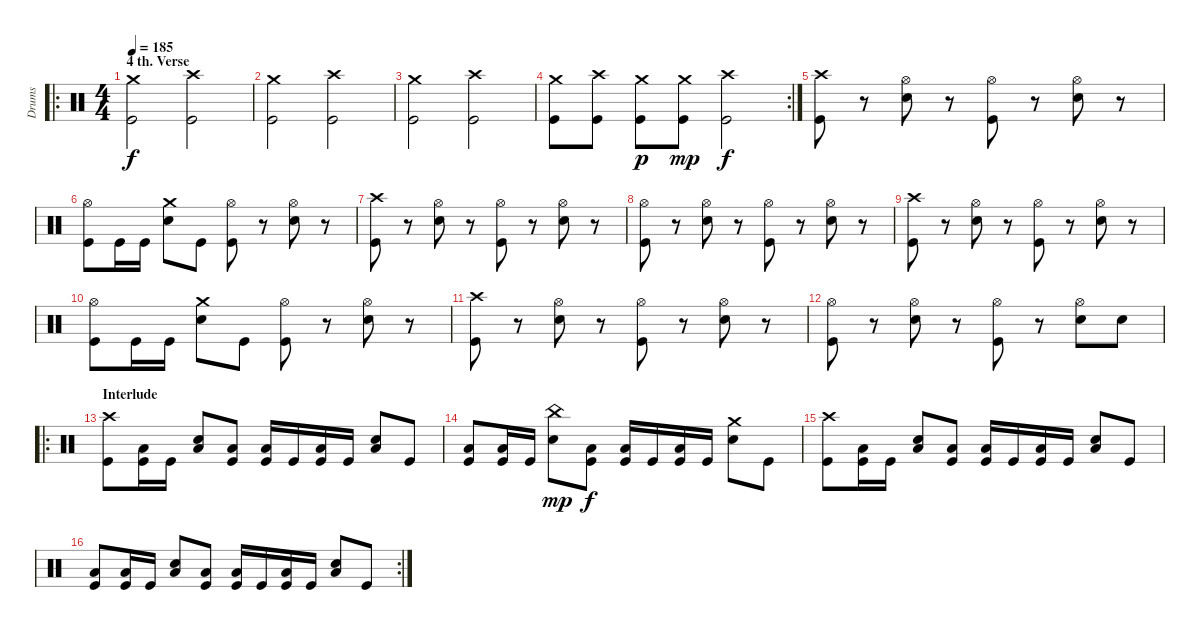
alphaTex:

\track ("Drums" "Drums") {instrument percussion}
\staff {score}
\articulation defaults
\ro
\ts (4 4)
\section ("" "4 th. Verse")
\tempo 185
\clef neutral
\ks c
("Crash medium (hit)" "Kick (hit)").2{dy f} ("Crash high (hit)" "Kick (hit)").2 |
("Crash medium (hit)" "Kick (hit)").2 ("Crash high (hit)" "Kick (hit)").2 |
("Crash medium (hit)" "Kick (hit)").2 ("Crash high (hit)" "Kick (hit)").2 |
\rc 2
("Crash medium (hit)" "Kick (hit)").8 ("Crash high (hit)" "Kick (hit)").8 ("Crash medium (hit)" "Kick (hit)").8{dy p} ("Crash medium (hit)" "Kick (hit)").8{dy mp} ("Crash high (hit)" "Kick (hit)").2{dy f} |
("Crash high (hit)" "Kick (hit)").8 r.8 ("Hi-Hat (open)" "Electric Snare (hit)").8 r.8 ("Hi-Hat (open)" "Kick (hit)").8 r.8 ("Hi-Hat (open)" "Electric Snare (hit)").8 r.8 |
("Hi-Hat (open)" "Kick (hit)").8 "Kick (hit)".16 "Kick (hit)".16 ("Crash medium (hit)" "Electric Snare (hit)").8 "Kick (hit)".8 ("Hi-Hat (open)" "Kick (hit)").8 r.8 ("Hi-Hat (open)" "Electric Snare (hit)").8 r.8 |
("Crash high (hit)" "Kick (hit)").8 r.8 ("Hi-Hat (open)" "Electric Snare (hit)").8 r.8 ("Hi-Hat (open)" "Kick (hit)").8 r.8 ("Hi-Hat (open)" "Electric Snare (hit)").8 r.8 |
("Hi-Hat (open)" "Kick (hit)").8 r.8 ("Hi-Hat (open)" "Electric Snare (hit)").8 r.8 ("Hi-Hat (open)" "Kick (hit)").8 r.8 ("Hi-Hat (open)" "Electric Snare (hit)").8 r.8 |
("Crash high (hit)" "Kick (hit)").8 r.8 ("Hi-Hat (open)" "Electric Snare (hit)").8 r.8 ("Hi-Hat (open)" "Kick (hit)").8 r.8 ("Hi-Hat (open)" "Electric Snare (hit)").8 r.8 |
("Hi-Hat (open)" "Kick (hit)").8 "Kick (hit)".16 "Kick (hit)".16 ("Crash medium (hit)" "Electric Snare (hit)").8 "Kick (hit)".8 ("Hi-Hat (open)" "Kick (hit)").8 r.8 ("Hi-Hat (open)" "Electric Snare (hit)").8 r.8 |
("Crash high (hit)" "Kick (hit)").8 r.8 ("Hi-Hat (open)" "Electric Snare (hit)").8 r.8 ("Hi-Hat (open)" "Kick (hit)").8 r.8 ("Hi-Hat (open)" "Electric Snare (hit)").8 r.8 |
("Hi-Hat (open)" "Kick (hit)").8 r.8 ("Hi-Hat (open)" "Electric Snare (hit)").8 r.8 ("Hi-Hat (open)" "Kick (hit)").8 r.8 ("Hi-Hat (open)" "Electric Snare (hit)").8 "Electric Snare (hit)".8 |
\ro
\section ("" "Interlude")
("Crash high (hit)" "Kick (hit)").8 ("Low Floor Tom (hit)" "Kick (hit)").16 "Kick (hit)".16 ("Low Floor Tom (hit)" "Electric Snare (hit)").8 ("Low Floor Tom (hit)" "Kick (hit)").8 ("Low Floor Tom (hit)" "Kick (hit)").16 "Kick (hit)".16 ("Low Floor Tom (hit)" "Kick (hit)").16 "Kick (hit)".16 ("Low Floor Tom (hit)" "Electric Snare (hit)").8 "Kick (hit)".8 |
("Low Floor Tom (hit)" "Kick (hit)").8 ("Low Floor Tom (hit)" "Kick (hit)").16 "Kick (hit)".16 ("China (hit)" "Electric Snare (hit)").8{dy mp} ("Low Floor Tom (hit)" "Kick (hit)").8{dy f} ("Low Floor Tom (hit)" "Kick (hit)").16 "Kick (hit)".16 ("Low Floor Tom (hit)" "Kick (hit)").16 "Kick (hit)".16 ("Crash medium (hit)" "Electric Snare (hit)").8 "Kick (hit)".8 |
("Crash high (hit)" "Kick (hit)").8 ("Low Floor Tom (hit)" "Kick (hit)").16 "Kick (hit)".16 ("Low Floor Tom (hit)" "Electric Snare (hit)").8 ("Low Floor Tom (hit)" "Kick (hit)").8 ("Low Floor Tom (hit)" "Kick (hit)").16 "Kick (hit)".16 ("Low Floor Tom (hit)" "Kick (hit)").16 "Kick (hit)".16 ("Low Floor Tom (hit)" "Electric Snare (hit)").8 "Kick (hit)".8 |
\rc 2
("Low Floor Tom (hit)" "Kick (hit)").8 ("Low Floor Tom (hit)" "Kick (hit)").16 "Kick (hit)".16 ("Low Floor Tom (hit)" "Electric Snare (hit)").8 ("Low Floor Tom (hit)" "Kick (hit)").8 ("Low Floor Tom (hit)" "Kick (hit)").16 "Kick (hit)".16 ("Low Floor Tom (hit)" "Kick (hit)").16 "Kick (hit)".16 ("Low Floor Tom (hit)" "Electric Snare (hit)").8 "Kick (hit)".8
